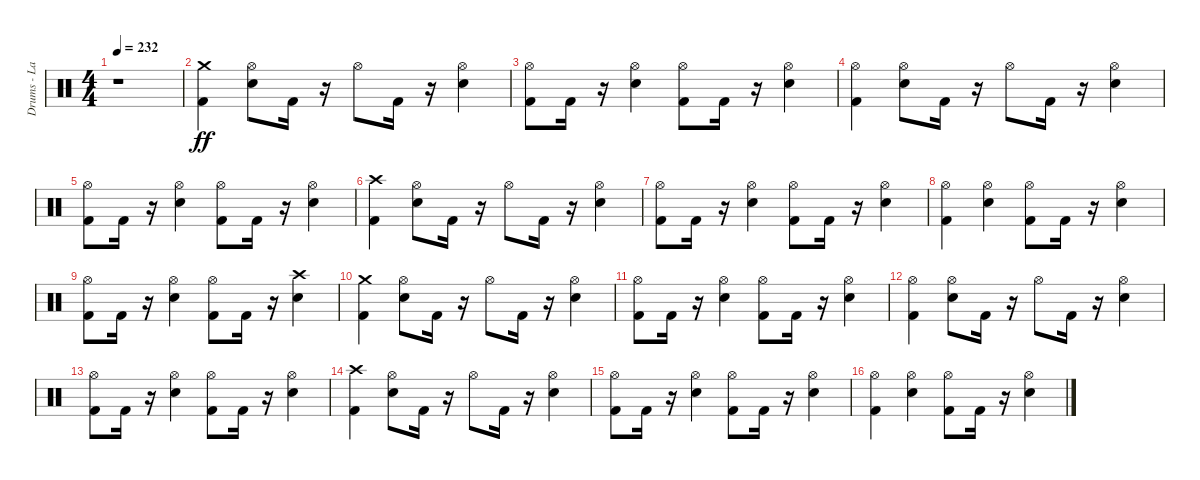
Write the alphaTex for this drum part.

\track ("Drums - Larzon" "Drums - La") {instrument percussion}
\staff {score}
\articulation defaults
\ts (4 4)
\tempo 232
\clef neutral
\ks c
r.1{dy ff} |
("Crash medium (hit)" "Kick (hit) 2").4 ("Hi-Hat (open)" "Electric Snare (hit)").8 "Kick (hit) 2".16 r.16 "Hi-Hat (open)".8 "Kick (hit) 2".16 r.16 ("Electric Snare (hit)" "Hi-Hat (open)").4 |
("Kick (hit) 2" "Hi-Hat (open)").8 "Kick (hit) 2".16 r.16 ("Electric Snare (hit)" "Hi-Hat (open)").4 ("Kick (hit) 2" "Hi-Hat (open)").8 "Kick (hit) 2".16 r.16 ("Electric Snare (hit)" "Hi-Hat (open)").4 |
("Kick (hit) 2" "Hi-Hat (open)").4 ("Hi-Hat (open)" "Electric Snare (hit)").8 "Kick (hit) 2".16 r.16 "Hi-Hat (open)".8 "Kick (hit) 2".16 r.16 ("Electric Snare (hit)" "Hi-Hat (open)").4 |
("Kick (hit) 2" "Hi-Hat (open)").8 "Kick (hit) 2".16 r.16 ("Electric Snare (hit)" "Hi-Hat (open)").4 ("Kick (hit) 2" "Hi-Hat (open)").8 "Kick (hit) 2".16 r.16 ("Electric Snare (hit)" "Hi-Hat (open)").4 |
("Kick (hit) 2" "Crash high (hit)").4 ("Hi-Hat (open)" "Electric Snare (hit)").8 "Kick (hit) 2".16 r.16 "Hi-Hat (open)".8 "Kick (hit) 2".16 r.16 ("Electric Snare (hit)" "Hi-Hat (open)").4 |
("Kick (hit) 2" "Hi-Hat (open)").8 "Kick (hit) 2".16 r.16 ("Electric Snare (hit)" "Hi-Hat (open)").4 ("Kick (hit) 2" "Hi-Hat (open)").8 "Kick (hit) 2".16 r.16 ("Electric Snare (hit)" "Hi-Hat (open)").4 |
("Kick (hit) 2" "Hi-Hat (open)").4 ("Hi-Hat (open)" "Electric Snare (hit)").4 ("Hi-Hat (open)" "Kick (hit) 2").8 "Kick (hit) 2".16 r.16 ("Electric Snare (hit)" "Hi-Hat (open)").4 |
("Kick (hit) 2" "Hi-Hat (open)").8 "Kick (hit) 2".16 r.16 ("Electric Snare (hit)" "Hi-Hat (open)").4 ("Kick (hit) 2" "Hi-Hat (open)").8 "Kick (hit) 2".16 r.16 ("Crash high (hit)" "Electric Snare (hit)").4 |
("Crash medium (hit)" "Kick (hit) 2").4 ("Hi-Hat (open)" "Electric Snare (hit)").8 "Kick (hit) 2".16 r.16 "Hi-Hat (open)".8 "Kick (hit) 2".16 r.16 ("Electric Snare (hit)" "Hi-Hat (open)").4 |
("Kick (hit) 2" "Hi-Hat (open)").8 "Kick (hit) 2".16 r.16 ("Electric Snare (hit)" "Hi-Hat (open)").4 ("Kick (hit) 2" "Hi-Hat (open)").8 "Kick (hit) 2".16 r.16 ("Electric Snare (hit)" "Hi-Hat (open)").4 |
("Kick (hit) 2" "Hi-Hat (open)").4 ("Hi-Hat (open)" "Electric Snare (hit)").8 "Kick (hit) 2".16 r.16 "Hi-Hat (open)".8 "Kick (hit) 2".16 r.16 ("Electric Snare (hit)" "Hi-Hat (open)").4 |
("Kick (hit) 2" "Hi-Hat (open)").8 "Kick (hit) 2".16 r.16 ("Electric Snare (hit)" "Hi-Hat (open)").4 ("Kick (hit) 2" "Hi-Hat (open)").8 "Kick (hit) 2".16 r.16 ("Electric Snare (hit)" "Hi-Hat (open)").4 |
("Kick (hit) 2" "Crash high (hit)").4 ("Hi-Hat (open)" "Electric Snare (hit)").8 "Kick (hit) 2".16 r.16 "Hi-Hat (open)".8 "Kick (hit) 2".16 r.16 ("Electric Snare (hit)" "Hi-Hat (open)").4 |
("Kick (hit) 2" "Hi-Hat (open)").8 "Kick (hit) 2".16 r.16 ("Electric Snare (hit)" "Hi-Hat (open)").4 ("Kick (hit) 2" "Hi-Hat (open)").8 "Kick (hit) 2".16 r.16 ("Electric Snare (hit)" "Hi-Hat (open)").4 |
("Kick (hit) 2" "Hi-Hat (open)").4 ("Hi-Hat (open)" "Electric Snare (hit)").4 ("Hi-Hat (open)" "Kick (hit) 2").8 "Kick (hit) 2".16 r.16 ("Electric Snare (hit)" "Hi-Hat (open)").4
